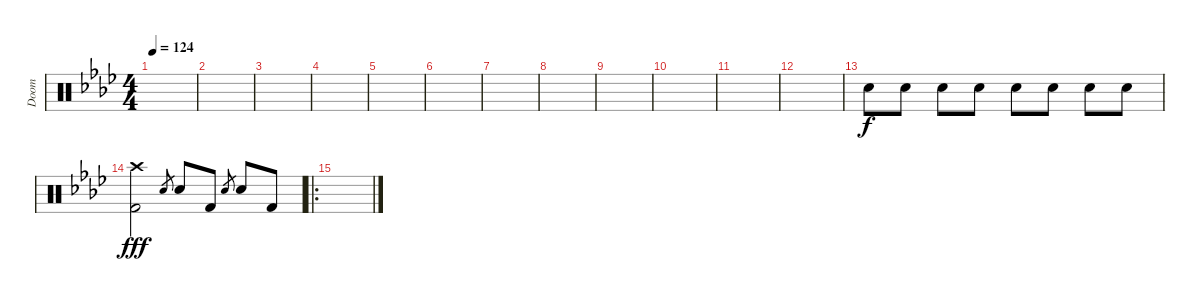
\track ("Doom" "Doom") {instrument percussion}
\staff {score}
\articulation defaults
\ts (4 4)
\tempo 124
\clef neutral
\ks ab
|
|
|
|
|
|
|
|
|
|
|
|
"Snare (hit)".8 "Snare (hit)".8 "Snare (hit)".8 "Snare (hit)".8 "Snare (hit)".8 "Snare (hit)".8 "Snare (hit)".8 "Snare (hit)".8 |
("Crash high (hit)" "Kick (hit) 2").2{dy fff} "Snare (hit) 2".8{gr} "Snare (hit) 2".8 "Kick (hit) 2".8 "Snare (hit) 2".8{gr} "Snare (hit) 2".8 "Kick (hit) 2".8 |
\ro
